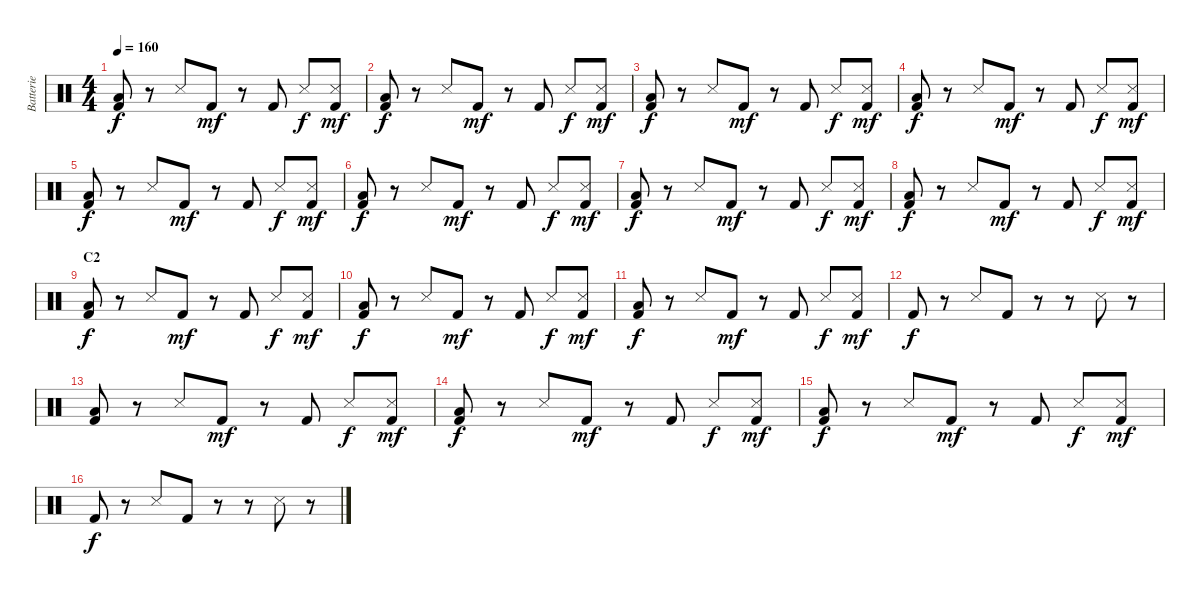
\track ("Batterie" "Batterie") {instrument percussion}
\staff {score}
\articulation defaults
\ts (4 4)
\tempo 160
\clef neutral
\ks c
("Low Floor Tom (hit)" "Kick (hit) 2").8{dy f} r.8 "Snare (side stick) 3".8 "Kick (hit) 2".8{dy mf} r.8 "Kick (hit) 2".8 "Snare (side stick) 3".8{dy f} ("Metronome (hit)" "Kick (hit) 2").8{dy mf} |
("Low Floor Tom (hit)" "Kick (hit) 2").8{dy f} r.8 "Snare (side stick) 3".8 "Kick (hit) 2".8{dy mf} r.8 "Kick (hit) 2".8 "Snare (side stick) 3".8{dy f} ("Metronome (hit)" "Kick (hit) 2").8{dy mf} |
("Low Floor Tom (hit)" "Kick (hit) 2").8{dy f} r.8 "Snare (side stick) 3".8 "Kick (hit) 2".8{dy mf} r.8 "Kick (hit) 2".8 "Snare (side stick) 3".8{dy f} ("Metronome (hit)" "Kick (hit) 2").8{dy mf} |
("Low Floor Tom (hit)" "Kick (hit) 2").8{dy f} r.8 "Snare (side stick) 3".8 "Kick (hit) 2".8{dy mf} r.8 "Kick (hit) 2".8 "Snare (side stick) 3".8{dy f} ("Metronome (hit)" "Kick (hit) 2").8{dy mf} |
("Low Floor Tom (hit)" "Kick (hit) 2").8{dy f} r.8 "Snare (side stick) 3".8 "Kick (hit) 2".8{dy mf} r.8 "Kick (hit) 2".8 "Snare (side stick) 3".8{dy f} ("Metronome (hit)" "Kick (hit) 2").8{dy mf} |
("Low Floor Tom (hit)" "Kick (hit) 2").8{dy f} r.8 "Snare (side stick) 3".8 "Kick (hit) 2".8{dy mf} r.8 "Kick (hit) 2".8 "Snare (side stick) 3".8{dy f} ("Metronome (hit)" "Kick (hit) 2").8{dy mf} |
("Low Floor Tom (hit)" "Kick (hit) 2").8{dy f} r.8 "Snare (side stick) 3".8 "Kick (hit) 2".8{dy mf} r.8 "Kick (hit) 2".8 "Snare (side stick) 3".8{dy f} ("Metronome (hit)" "Kick (hit) 2").8{dy mf} |
("Low Floor Tom (hit)" "Kick (hit) 2").8{dy f} r.8 "Snare (side stick) 3".8 "Kick (hit) 2".8{dy mf} r.8 "Kick (hit) 2".8 "Snare (side stick) 3".8{dy f} ("Metronome (hit)" "Kick (hit) 2").8{dy mf} |
\section ("" "C2")
("Low Floor Tom (hit)" "Kick (hit) 2").8{dy f} r.8 "Snare (side stick) 3".8 "Kick (hit) 2".8{dy mf} r.8 "Kick (hit) 2".8 "Snare (side stick) 3".8{dy f} ("Metronome (hit)" "Kick (hit) 2").8{dy mf} |
("Low Floor Tom (hit)" "Kick (hit) 2").8{dy f} r.8 "Snare (side stick) 3".8 "Kick (hit) 2".8{dy mf} r.8 "Kick (hit) 2".8 "Snare (side stick) 3".8{dy f} ("Metronome (hit)" "Kick (hit) 2").8{dy mf} |
("Low Floor Tom (hit)" "Kick (hit) 2").8{dy f} r.8 "Snare (side stick) 3".8 "Kick (hit) 2".8{dy mf} r.8 "Kick (hit) 2".8 "Snare (side stick) 3".8{dy f} ("Metronome (hit)" "Kick (hit) 2").8{dy mf} |
"Kick (hit) 2".8{dy f} r.8 "Snare (side stick) 3".8 "Kick (hit) 2".8 r.8 r.8 "Snare (side stick) 3".8 r.8 |
("Low Floor Tom (hit)" "Kick (hit) 2").8 r.8 "Snare (side stick) 3".8 "Kick (hit) 2".8{dy mf} r.8 "Kick (hit) 2".8 "Snare (side stick) 3".8{dy f} ("Metronome (hit)" "Kick (hit) 2").8{dy mf} |
("Low Floor Tom (hit)" "Kick (hit) 2").8{dy f} r.8 "Snare (side stick) 3".8 "Kick (hit) 2".8{dy mf} r.8 "Kick (hit) 2".8 "Snare (side stick) 3".8{dy f} ("Metronome (hit)" "Kick (hit) 2").8{dy mf} |
("Low Floor Tom (hit)" "Kick (hit) 2").8{dy f} r.8 "Snare (side stick) 3".8 "Kick (hit) 2".8{dy mf} r.8 "Kick (hit) 2".8 "Snare (side stick) 3".8{dy f} ("Metronome (hit)" "Kick (hit) 2").8{dy mf} |
"Kick (hit) 2".8{dy f} r.8 "Snare (side stick) 3".8 "Kick (hit) 2".8 r.8 r.8 "Snare (side stick) 3".8 r.8
